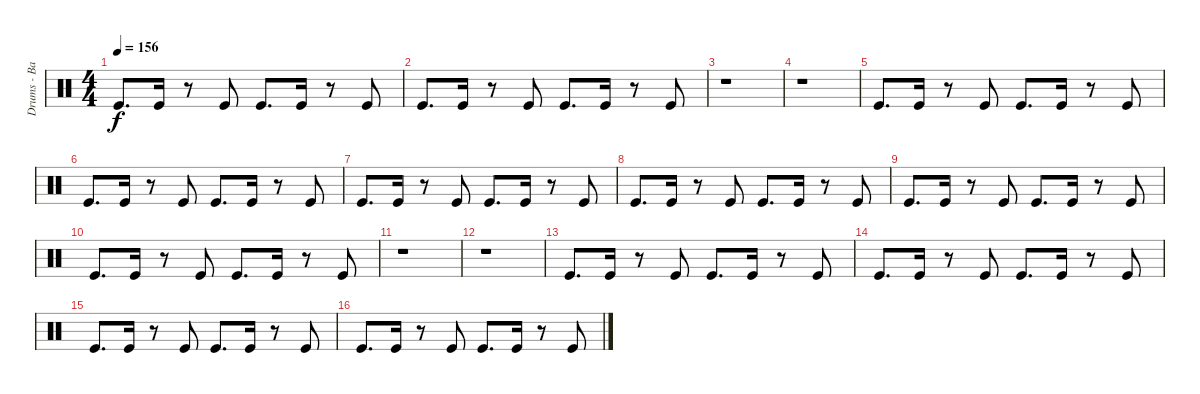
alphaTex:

\track ("Drums - Bass Drums" "Drums - Ba") {instrument percussion}
\staff {score}
\articulation defaults
\ts (4 4)
\tempo 156
\clef neutral
\ks c "Kick (hit)".8{d dy f} "Kick (hit)".16
r.8 "Kick (hit)".8 "Kick (hit)".8{d} "Kick (hit)".16 r.8 "Kick (hit)".8 |
"Kick (hit)".8{d} "Kick (hit)".16 r.8 "Kick (hit)".8 "Kick (hit)".8{d} "Kick (hit)".16 r.8 "Kick (hit)".8 |
r.1 |
r.1 |
"Kick (hit)".8{d} "Kick (hit)".16 r.8 "Kick (hit)".8 "Kick (hit)".8{d} "Kick (hit)".16 r.8 "Kick (hit)".8 |
"Kick (hit)".8{d} "Kick (hit)".16 r.8 "Kick (hit)".8 "Kick (hit)".8{d} "Kick (hit)".16 r.8 "Kick (hit)".8 |
"Kick (hit)".8{d} "Kick (hit)".16 r.8 "Kick (hit)".8 "Kick (hit)".8{d} "Kick (hit)".16 r.8 "Kick (hit)".8 |
"Kick (hit)".8{d} "Kick (hit)".16 r.8 "Kick (hit)".8 "Kick (hit)".8{d} "Kick (hit)".16 r.8 "Kick (hit)".8 |
"Kick (hit)".8{d} "Kick (hit)".16 r.8 "Kick (hit)".8 "Kick (hit)".8{d} "Kick (hit)".16 r.8 "Kick (hit)".8 |
"Kick (hit)".8{d} "Kick (hit)".16 r.8 "Kick (hit)".8 "Kick (hit)".8{d} "Kick (hit)".16 r.8 "Kick (hit)".8 |
r.1 |
r.1 |
"Kick (hit)".8{d} "Kick (hit)".16 r.8 "Kick (hit)".8 "Kick (hit)".8{d} "Kick (hit)".16 r.8 "Kick (hit)".8 |
"Kick (hit)".8{d} "Kick (hit)".16 r.8 "Kick (hit)".8 "Kick (hit)".8{d} "Kick (hit)".16 r.8 "Kick (hit)".8 |
"Kick (hit)".8{d} "Kick (hit)".16 r.8 "Kick (hit)".8 "Kick (hit)".8{d} "Kick (hit)".16 r.8 "Kick (hit)".8 |
"Kick (hit)".8{d} "Kick (hit)".16 r.8 "Kick (hit)".8 "Kick (hit)".8{d} "Kick (hit)".16 r.8 "Kick (hit)".8
